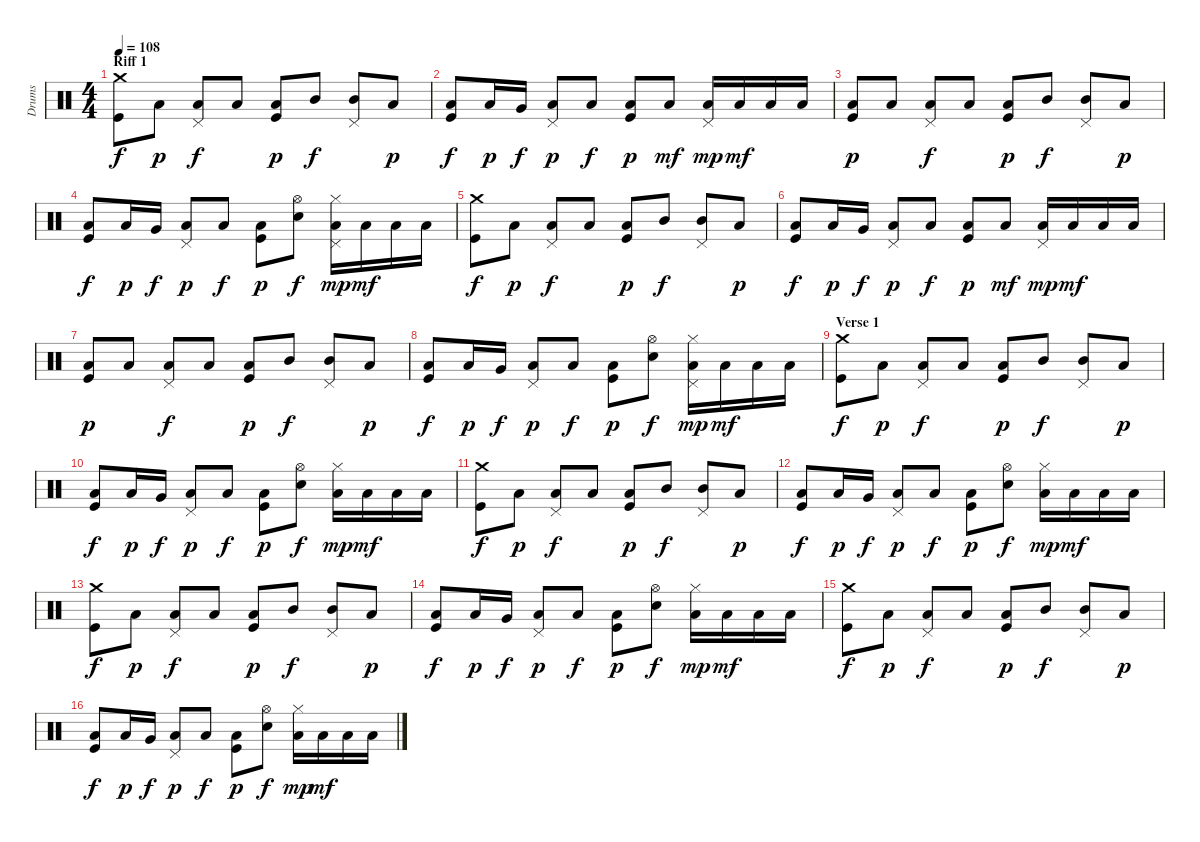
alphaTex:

\track ("Drums" "Drums") {instrument percussion}
\staff {score}
\articulation defaults
\ts (4 4)
\section ("" "Riff 1")
\tempo 108
\clef neutral
\ks c
("Crash medium (hit)" "Kick (hit)").8{dy f} "Low Floor Tom (hit)".8{dy p} ("Low Tom (hit)" "Pedal Hi-Hat (hit)").8{dy f} "Low Tom (hit)".8 ("Low Floor Tom (hit)" "Kick (hit)").8{dy p} "Mid Tom (hit)".8{dy f} ("Mid Tom (hit)" "Pedal Hi-Hat (hit)").8 "Low Floor Tom (hit)".8{dy p} |
("Low Tom (hit)" "Kick (hit)").8{dy f} "Low Floor Tom (hit)".16{dy p} "Very Low Tom (hit)".16{dy f} ("Low Floor Tom (hit)" "Pedal Hi-Hat (hit)").8{dy p} "Low Tom (hit)".8{dy f} ("Low Floor Tom (hit)" "Kick (hit)").8{dy p} "Low Floor Tom (hit)".8{dy mf} ("Low Floor Tom (hit)" "Pedal Hi-Hat (hit)").16{dy mp} "Low Floor Tom (hit)".16{dy mf} "Low Floor Tom (hit)".16 "Low Floor Tom (hit)".16 |
("Low Floor Tom (hit)" "Kick (hit)").8{dy p} "Low Floor Tom (hit)".8 ("Low Tom (hit)" "Pedal Hi-Hat (hit)").8{dy f} "Low Tom (hit)".8 ("Low Floor Tom (hit)" "Kick (hit)").8{dy p} "Mid Tom (hit)".8{dy f} ("Mid Tom (hit)" "Pedal Hi-Hat (hit)").8 "Low Floor Tom (hit)".8{dy p} |
("Low Tom (hit)" "Kick (hit)").8{dy f} "Low Floor Tom (hit)".16{dy p} "Very Low Tom (hit)".16{dy f} ("Low Floor Tom (hit)" "Pedal Hi-Hat (hit)").8{dy p} "Low Tom (hit)".8{dy f} ("Low Floor Tom (hit)" "Kick (hit)").8{dy p} ("Hi-Hat (open)" "Electric Snare (hit)").8{dy f} ("Hi-Hat (closed)" "Low Floor Tom (hit)" "Pedal Hi-Hat (hit)").16{dy mp} "Low Floor Tom (hit)".16{dy mf} "Low Floor Tom (hit)".16 "Low Floor Tom (hit)".16 |
("Crash medium (hit)" "Kick (hit)").8{dy f} "Low Floor Tom (hit)".8{dy p} ("Low Tom (hit)" "Pedal Hi-Hat (hit)").8{dy f} "Low Tom (hit)".8 ("Low Floor Tom (hit)" "Kick (hit)").8{dy p} "Mid Tom (hit)".8{dy f} ("Mid Tom (hit)" "Pedal Hi-Hat (hit)").8 "Low Floor Tom (hit)".8{dy p} |
("Low Tom (hit)" "Kick (hit)").8{dy f} "Low Floor Tom (hit)".16{dy p} "Very Low Tom (hit)".16{dy f} ("Low Floor Tom (hit)" "Pedal Hi-Hat (hit)").8{dy p} "Low Tom (hit)".8{dy f} ("Low Floor Tom (hit)" "Kick (hit)").8{dy p} "Low Floor Tom (hit)".8{dy mf} ("Low Floor Tom (hit)" "Pedal Hi-Hat (hit)").16{dy mp} "Low Floor Tom (hit)".16{dy mf} "Low Floor Tom (hit)".16 "Low Floor Tom (hit)".16 |
("Low Floor Tom (hit)" "Kick (hit)").8{dy p} "Low Floor Tom (hit)".8 ("Low Tom (hit)" "Pedal Hi-Hat (hit)").8{dy f} "Low Tom (hit)".8 ("Low Floor Tom (hit)" "Kick (hit)").8{dy p} "Mid Tom (hit)".8{dy f} ("Mid Tom (hit)" "Pedal Hi-Hat (hit)").8 "Low Floor Tom (hit)".8{dy p} |
("Low Tom (hit)" "Kick (hit)").8{dy f} "Low Floor Tom (hit)".16{dy p} "Very Low Tom (hit)".16{dy f} ("Low Floor Tom (hit)" "Pedal Hi-Hat (hit)").8{dy p} "Low Tom (hit)".8{dy f} ("Low Floor Tom (hit)" "Kick (hit)").8{dy p} ("Hi-Hat (open)" "Electric Snare (hit)").8{dy f} ("Hi-Hat (closed)" "Low Floor Tom (hit)" "Pedal Hi-Hat (hit)").16{dy mp} "Low Floor Tom (hit)".16{dy mf} "Low Floor Tom (hit)".16 "Low Floor Tom (hit)".16 |
\section ("" "Verse 1")
("Crash medium (hit)" "Kick (hit)").8{dy f} "Low Floor Tom (hit)".8{dy p} ("Low Tom (hit)" "Pedal Hi-Hat (hit)").8{dy f} "Low Tom (hit)".8 ("Low Floor Tom (hit)" "Kick (hit)").8{dy p} "Mid Tom (hit)".8{dy f} ("Mid Tom (hit)" "Pedal Hi-Hat (hit)").8 "Low Floor Tom (hit)".8{dy p} |
("Low Tom (hit)" "Kick (hit)").8{dy f} "Low Floor Tom (hit)".16{dy p} "Very Low Tom (hit)".16{dy f} ("Low Floor Tom (hit)" "Pedal Hi-Hat (hit)").8{dy p} "Low Tom (hit)".8{dy f} ("Low Floor Tom (hit)" "Kick (hit)").8{dy p} ("Hi-Hat (open)" "Electric Snare (hit)").8{dy f} ("Hi-Hat (closed)" "Low Floor Tom (hit)").16{dy mp} "Low Floor Tom (hit)".16{dy mf} "Low Floor Tom (hit)".16 "Low Floor Tom (hit)".16 |
("Crash medium (hit)" "Kick (hit)").8{dy f} "Low Floor Tom (hit)".8{dy p} ("Low Tom (hit)" "Pedal Hi-Hat (hit)").8{dy f} "Low Tom (hit)".8 ("Low Floor Tom (hit)" "Kick (hit)").8{dy p} "Mid Tom (hit)".8{dy f} ("Mid Tom (hit)" "Pedal Hi-Hat (hit)").8 "Low Floor Tom (hit)".8{dy p} |
("Low Tom (hit)" "Kick (hit)").8{dy f} "Low Floor Tom (hit)".16{dy p} "Very Low Tom (hit)".16{dy f} ("Low Floor Tom (hit)" "Pedal Hi-Hat (hit)").8{dy p} "Low Tom (hit)".8{dy f} ("Low Floor Tom (hit)" "Kick (hit)").8{dy p} ("Hi-Hat (open)" "Electric Snare (hit)").8{dy f} ("Hi-Hat (closed)" "Low Floor Tom (hit)").16{dy mp} "Low Floor Tom (hit)".16{dy mf} "Low Floor Tom (hit)".16 "Low Floor Tom (hit)".16 |
("Crash medium (hit)" "Kick (hit)").8{dy f} "Low Floor Tom (hit)".8{dy p} ("Low Tom (hit)" "Pedal Hi-Hat (hit)").8{dy f} "Low Tom (hit)".8 ("Low Floor Tom (hit)" "Kick (hit)").8{dy p} "Mid Tom (hit)".8{dy f} ("Mid Tom (hit)" "Pedal Hi-Hat (hit)").8 "Low Floor Tom (hit)".8{dy p} |
("Low Tom (hit)" "Kick (hit)").8{dy f} "Low Floor Tom (hit)".16{dy p} "Very Low Tom (hit)".16{dy f} ("Low Floor Tom (hit)" "Pedal Hi-Hat (hit)").8{dy p} "Low Tom (hit)".8{dy f} ("Low Floor Tom (hit)" "Kick (hit)").8{dy p} ("Hi-Hat (open)" "Electric Snare (hit)").8{dy f} ("Hi-Hat (closed)" "Low Floor Tom (hit)").16{dy mp} "Low Floor Tom (hit)".16{dy mf} "Low Floor Tom (hit)".16 "Low Floor Tom (hit)".16 |
("Crash medium (hit)" "Kick (hit)").8{dy f} "Low Floor Tom (hit)".8{dy p} ("Low Tom (hit)" "Pedal Hi-Hat (hit)").8{dy f} "Low Tom (hit)".8 ("Low Floor Tom (hit)" "Kick (hit)").8{dy p} "Mid Tom (hit)".8{dy f} ("Mid Tom (hit)" "Pedal Hi-Hat (hit)").8 "Low Floor Tom (hit)".8{dy p} |
("Low Tom (hit)" "Kick (hit)").8{dy f} "Low Floor Tom (hit)".16{dy p} "Very Low Tom (hit)".16{dy f} ("Low Floor Tom (hit)" "Pedal Hi-Hat (hit)").8{dy p} "Low Tom (hit)".8{dy f} ("Low Floor Tom (hit)" "Kick (hit)").8{dy p} ("Hi-Hat (open)" "Electric Snare (hit)").8{dy f} ("Hi-Hat (closed)" "Low Floor Tom (hit)").16{dy mp} "Low Floor Tom (hit)".16{dy mf} "Low Floor Tom (hit)".16 "Low Floor Tom (hit)".16
